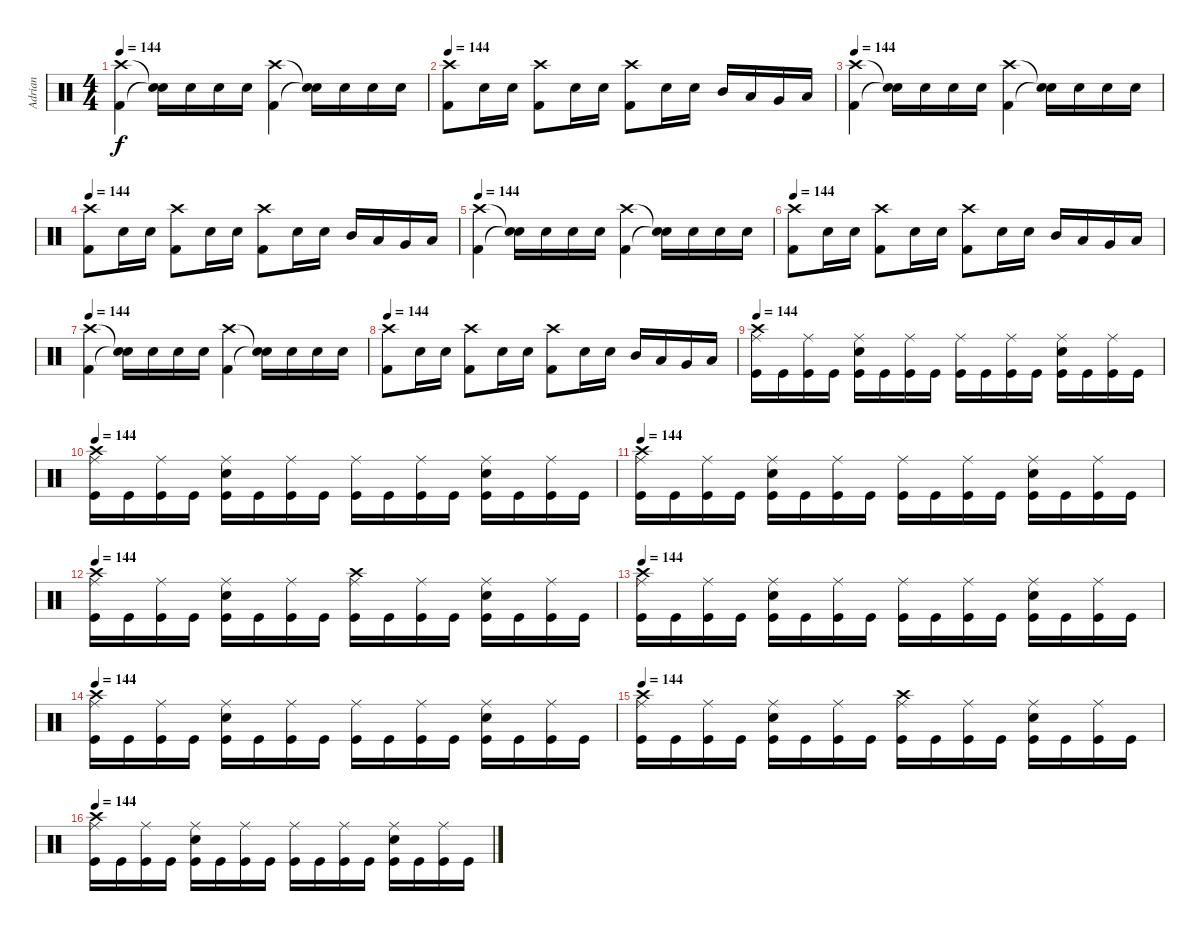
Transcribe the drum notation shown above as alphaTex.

\track ("Adrian" "Adrian") {instrument percussion}
\staff {score}
\articulation defaults
\ts (4 4)
\tempo 144
\clef neutral
\ks c
("Kick (hit) 2" "Crash high (hit)").4{dy f} ("Snare (hit)"{t} "Snare (hit)"{t}).16 "Snare (hit) 2".16 "Snare (hit) 2".16 "Snare (hit) 2".16 ("Kick (hit) 2" "Crash high (hit)").4 ("Snare (hit)"{t} "Snare (hit)"{t}).16 "Snare (hit) 2".16 "Snare (hit) 2".16 "Snare (hit) 2".16 |
\tempo 144
("Kick (hit) 2" "Crash high (hit)").8 "Snare (hit) 2".16 "Snare (hit) 2".16 ("Kick (hit) 2" "Crash high (hit)").8 "Snare (hit) 2".16 "Snare (hit) 2".16 ("Kick (hit) 2" "Crash high (hit)").8 "Snare (hit) 2".16 "Snare (hit) 2".16 "Mid Tom (hit)".16 "Low Tom (hit)".16 "Very Low Tom (hit)".16 "Low Floor Tom (hit)".16 |
\tempo 144
("Kick (hit) 2" "Crash high (hit)").4 ("Snare (hit)"{t} "Snare (hit)"{t}).16 "Snare (hit) 2".16 "Snare (hit) 2".16 "Snare (hit) 2".16 ("Kick (hit) 2" "Crash high (hit)").4 ("Snare (hit)"{t} "Snare (hit)"{t}).16 "Snare (hit) 2".16 "Snare (hit) 2".16 "Snare (hit) 2".16 |
\tempo 144
("Kick (hit) 2" "Crash high (hit)").8 "Snare (hit) 2".16 "Snare (hit) 2".16 ("Kick (hit) 2" "Crash high (hit)").8 "Snare (hit) 2".16 "Snare (hit) 2".16 ("Kick (hit) 2" "Crash high (hit)").8 "Snare (hit) 2".16 "Snare (hit) 2".16 "Mid Tom (hit)".16 "Low Tom (hit)".16 "Very Low Tom (hit)".16 "Low Floor Tom (hit)".16 |
\tempo 144
("Kick (hit) 2" "Crash high (hit)").4 ("Snare (hit)"{t} "Snare (hit)"{t}).16 "Snare (hit) 2".16 "Snare (hit) 2".16 "Snare (hit) 2".16 ("Kick (hit) 2" "Crash high (hit)").4 ("Snare (hit)"{t} "Snare (hit)"{t}).16 "Snare (hit) 2".16 "Snare (hit) 2".16 "Snare (hit) 2".16 |
\tempo 144
("Kick (hit) 2" "Crash high (hit)").8 "Snare (hit) 2".16 "Snare (hit) 2".16 ("Kick (hit) 2" "Crash high (hit)").8 "Snare (hit) 2".16 "Snare (hit) 2".16 ("Kick (hit) 2" "Crash high (hit)").8 "Snare (hit) 2".16 "Snare (hit) 2".16 "Mid Tom (hit)".16 "Low Tom (hit)".16 "Very Low Tom (hit)".16 "Low Floor Tom (hit)".16 |
\tempo 144
("Kick (hit) 2" "Crash high (hit)").4 ("Snare (hit)"{t} "Snare (hit)"{t}).16 "Snare (hit) 2".16 "Snare (hit) 2".16 "Snare (hit) 2".16 ("Kick (hit) 2" "Crash high (hit)").4 ("Snare (hit)"{t} "Snare (hit)"{t}).16 "Snare (hit) 2".16 "Snare (hit) 2".16 "Snare (hit) 2".16 |
\tempo 144
("Kick (hit) 2" "Crash high (hit)").8 "Snare (hit) 2".16 "Snare (hit) 2".16 ("Kick (hit) 2" "Crash high (hit)").8 "Snare (hit) 2".16 "Snare (hit) 2".16 ("Kick (hit) 2" "Crash high (hit)").8 "Snare (hit) 2".16 "Snare (hit) 2".16 "Mid Tom (hit)".16 "Low Tom (hit)".16 "Very Low Tom (hit)".16 "Low Floor Tom (hit)".16 |
\tempo 144
("Kick (hit)" "Ride (middle)" "Crash high (hit)").16 "Kick (hit)".16 ("Kick (hit)" "Ride (middle)").16 "Kick (hit)".16 ("Kick (hit)" "Snare (hit) 2" "Ride (middle)").16 "Kick (hit)".16 ("Kick (hit)" "Ride (middle)").16 "Kick (hit)".16 ("Kick (hit)" "Ride (middle)").16 "Kick (hit)".16 ("Kick (hit)" "Ride (middle)").16 "Kick (hit)".16 ("Kick (hit)" "Snare (hit) 2" "Ride (middle)").16 "Kick (hit)".16 ("Kick (hit)" "Ride (middle)").16 "Kick (hit)".16 |
\tempo 144
("Kick (hit)" "Ride (middle)" "Crash high (hit)").16 "Kick (hit)".16 ("Kick (hit)" "Ride (middle)").16 "Kick (hit)".16 ("Kick (hit)" "Snare (hit) 2" "Ride (middle)").16 "Kick (hit)".16 ("Kick (hit)" "Ride (middle)").16 "Kick (hit)".16 ("Kick (hit)" "Ride (middle)").16 "Kick (hit)".16 ("Kick (hit)" "Ride (middle)").16 "Kick (hit)".16 ("Kick (hit)" "Snare (hit) 2" "Ride (middle)").16 "Kick (hit)".16 ("Kick (hit)" "Ride (middle)").16 "Kick (hit)".16 |
\tempo 144
("Kick (hit)" "Ride (middle)" "Crash high (hit)").16 "Kick (hit)".16 ("Kick (hit)" "Ride (middle)").16 "Kick (hit)".16 ("Kick (hit)" "Snare (hit) 2" "Ride (middle)").16 "Kick (hit)".16 ("Kick (hit)" "Ride (middle)").16 "Kick (hit)".16 ("Kick (hit)" "Ride (middle)").16 "Kick (hit)".16 ("Kick (hit)" "Ride (middle)").16 "Kick (hit)".16 ("Kick (hit)" "Snare (hit) 2" "Ride (middle)").16 "Kick (hit)".16 ("Kick (hit)" "Ride (middle)").16 "Kick (hit)".16 |
\tempo 144
("Kick (hit)" "Ride (middle)" "Crash high (hit)").16 "Kick (hit)".16 ("Kick (hit)" "Ride (middle)").16 "Kick (hit)".16 ("Kick (hit)" "Snare (hit) 2" "Ride (middle)").16 "Kick (hit)".16 ("Kick (hit)" "Ride (middle)").16 "Kick (hit)".16 ("Kick (hit)" "Ride (middle)" "Crash high (hit)").16 "Kick (hit)".16 ("Kick (hit)" "Ride (middle)").16 "Kick (hit)".16 ("Kick (hit)" "Snare (hit) 2" "Ride (middle)").16 "Kick (hit)".16 ("Kick (hit)" "Ride (middle)").16 "Kick (hit)".16 |
\tempo 144
("Kick (hit)" "Ride (middle)" "Crash high (hit)").16 "Kick (hit)".16 ("Kick (hit)" "Ride (middle)").16 "Kick (hit)".16 ("Kick (hit)" "Snare (hit) 2" "Ride (middle)").16 "Kick (hit)".16 ("Kick (hit)" "Ride (middle)").16 "Kick (hit)".16 ("Kick (hit)" "Ride (middle)").16 "Kick (hit)".16 ("Kick (hit)" "Ride (middle)").16 "Kick (hit)".16 ("Kick (hit)" "Snare (hit) 2" "Ride (middle)").16 "Kick (hit)".16 ("Kick (hit)" "Ride (middle)").16 "Kick (hit)".16 |
\tempo 144
("Kick (hit)" "Ride (middle)" "Crash high (hit)").16 "Kick (hit)".16 ("Kick (hit)" "Ride (middle)").16 "Kick (hit)".16 ("Kick (hit)" "Snare (hit) 2" "Ride (middle)").16 "Kick (hit)".16 ("Kick (hit)" "Ride (middle)").16 "Kick (hit)".16 ("Kick (hit)" "Ride (middle)").16 "Kick (hit)".16 ("Kick (hit)" "Ride (middle)").16 "Kick (hit)".16 ("Kick (hit)" "Snare (hit) 2" "Ride (middle)").16 "Kick (hit)".16 ("Kick (hit)" "Ride (middle)").16 "Kick (hit)".16 |
\tempo 144
("Kick (hit)" "Ride (middle)" "Crash high (hit)").16 "Kick (hit)".16 ("Kick (hit)" "Ride (middle)").16 "Kick (hit)".16 ("Kick (hit)" "Snare (hit) 2" "Ride (middle)").16 "Kick (hit)".16 ("Kick (hit)" "Ride (middle)").16 "Kick (hit)".16 ("Kick (hit)" "Ride (middle)" "Crash high (hit)").16 "Kick (hit)".16 ("Kick (hit)" "Ride (middle)").16 "Kick (hit)".16 ("Kick (hit)" "Snare (hit) 2" "Ride (middle)").16 "Kick (hit)".16 ("Kick (hit)" "Ride (middle)").16 "Kick (hit)".16 |
\tempo 144
("Kick (hit)" "Ride (middle)" "Crash high (hit)").16 "Kick (hit)".16 ("Kick (hit)" "Ride (middle)").16 "Kick (hit)".16 ("Kick (hit)" "Snare (hit) 2" "Ride (middle)").16 "Kick (hit)".16 ("Kick (hit)" "Ride (middle)").16 "Kick (hit)".16 ("Kick (hit)" "Ride (middle)").16 "Kick (hit)".16 ("Kick (hit)" "Ride (middle)").16 "Kick (hit)".16 ("Kick (hit)" "Snare (hit) 2" "Ride (middle)").16 "Kick (hit)".16 ("Kick (hit)" "Ride (middle)").16 "Kick (hit)".16
